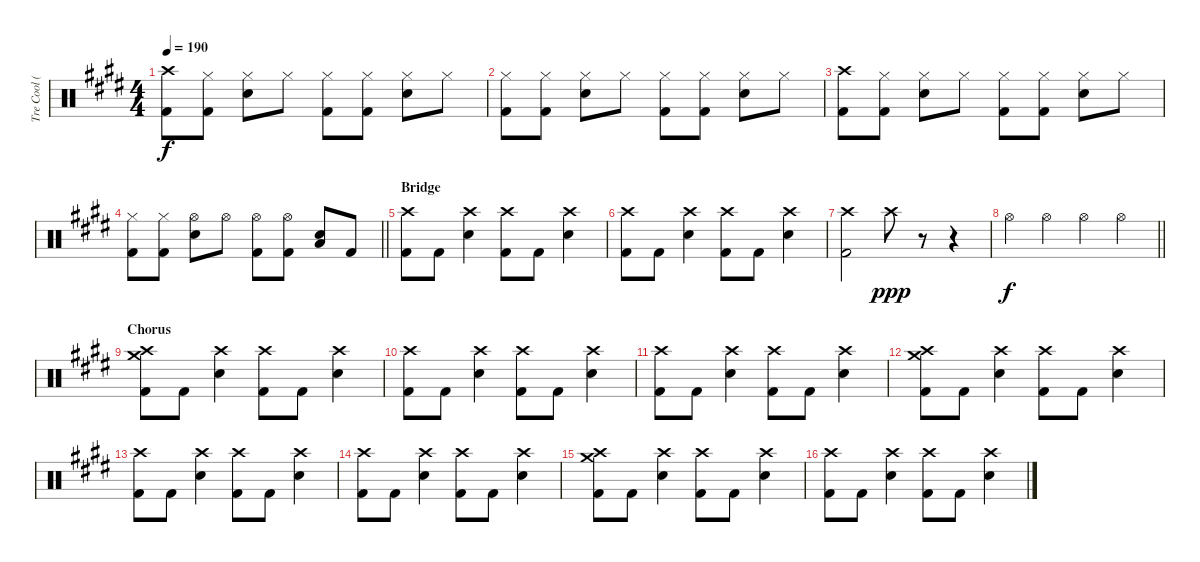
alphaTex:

\track ("Tre Cool (Drums)" "Tre Cool (") {instrument percussion}
\staff {score}
\articulation defaults
\ts (4 4)
\tempo 190
\clef neutral
\ks e
("Crash high (hit)" "Kick (hit) 2").8{dy f} ("Hi-Hat (closed)" "Kick (hit) 2").8 ("Hi-Hat (closed)" "Electric Snare (hit)").8 "Hi-Hat (closed)".8 ("Hi-Hat (closed)" "Kick (hit) 2").8 ("Hi-Hat (closed)" "Kick (hit) 2").8 ("Hi-Hat (closed)" "Electric Snare (hit)").8 "Hi-Hat (closed)".8 |
("Hi-Hat (closed)" "Kick (hit) 2").8 ("Hi-Hat (closed)" "Kick (hit) 2").8 ("Hi-Hat (closed)" "Electric Snare (hit)").8 "Hi-Hat (closed)".8 ("Hi-Hat (closed)" "Kick (hit) 2").8 ("Hi-Hat (closed)" "Kick (hit) 2").8 ("Hi-Hat (closed)" "Electric Snare (hit)").8 "Hi-Hat (closed)".8 |
("Crash high (hit)" "Kick (hit) 2").8 ("Hi-Hat (closed)" "Kick (hit) 2").8 ("Hi-Hat (closed)" "Electric Snare (hit)").8 "Hi-Hat (closed)".8 ("Hi-Hat (closed)" "Kick (hit) 2").8 ("Hi-Hat (closed)" "Kick (hit) 2").8 ("Hi-Hat (closed)" "Electric Snare (hit)").8 "Hi-Hat (closed)".8 |
\barLineRight lightlight
("Hi-Hat (closed)" "Kick (hit) 2").8 ("Hi-Hat (closed)" "Kick (hit) 2").8 ("Hi-Hat (open)" "Electric Snare (hit)").8 "Hi-Hat (open)".8 ("Hi-Hat (open)" "Kick (hit) 2").8 ("Hi-Hat (open)" "Kick (hit) 2").8 ("Low Tom (hit)" "Electric Snare (hit)").8 "Kick (hit) 2".8 |
\section ("" "Bridge")
("Kick (hit) 2" "Crash high (hit)").8 "Kick (hit) 2".8 ("Electric Snare (hit)" "Crash high (hit)").4 ("Kick (hit) 2" "Crash high (hit)").8 "Kick (hit) 2".8 ("Electric Snare (hit)" "Crash high (hit)").4 |
("Kick (hit) 2" "Crash high (hit)").8 "Kick (hit) 2".8 ("Electric Snare (hit)" "Crash high (hit)").4 ("Kick (hit) 2" "Crash high (hit)").8 "Kick (hit) 2".8 ("Electric Snare (hit)" "Crash high (hit)").4 |
("Kick (hit) 2" "Crash high (hit)").2 "Crash high (hit)".8{dy ppp} r.8 r.4 |
\barLineRight lightlight "Hi-Hat (open)".4{dy f} "Hi-Hat (open)".4 "Hi-Hat (open)".4 "Hi-Hat (open)".4
|
\section ("" "Chorus")
("Kick (hit) 2" "Crash medium (hit)" "Crash high (hit)").8 "Kick (hit) 2".8 ("Electric Snare (hit)" "Crash high (hit)").4 ("Kick (hit) 2" "Crash high (hit)").8 "Kick (hit) 2".8 ("Electric Snare (hit)" "Crash high (hit)").4 |
("Kick (hit) 2" "Crash high (hit)").8 "Kick (hit) 2".8 ("Electric Snare (hit)" "Crash high (hit)").4 ("Kick (hit) 2" "Crash high (hit)").8 "Kick (hit) 2".8 ("Electric Snare (hit)" "Crash high (hit)").4 |
("Kick (hit) 2" "Crash high (hit)").8 "Kick (hit) 2".8 ("Electric Snare (hit)" "Crash high (hit)").4 ("Kick (hit) 2" "Crash high (hit)").8 "Kick (hit) 2".8 ("Electric Snare (hit)" "Crash high (hit)").4 |
("Kick (hit) 2" "Crash medium (hit)" "Crash high (hit)").8 "Kick (hit) 2".8 ("Electric Snare (hit)" "Crash high (hit)").4 ("Kick (hit) 2" "Crash high (hit)").8 "Kick (hit) 2".8 ("Electric Snare (hit)" "Crash high (hit)").4 |
("Kick (hit) 2" "Crash high (hit)").8 "Kick (hit) 2".8 ("Electric Snare (hit)" "Crash high (hit)").4 ("Kick (hit) 2" "Crash high (hit)").8 "Kick (hit) 2".8 ("Electric Snare (hit)" "Crash high (hit)").4 |
("Kick (hit) 2" "Crash high (hit)").8 "Kick (hit) 2".8 ("Electric Snare (hit)" "Crash high (hit)").4 ("Kick (hit) 2" "Crash high (hit)").8 "Kick (hit) 2".8 ("Electric Snare (hit)" "Crash high (hit)").4 |
("Kick (hit) 2" "Crash medium (hit)" "Crash high (hit)").8 "Kick (hit) 2".8 ("Electric Snare (hit)" "Crash high (hit)").4 ("Kick (hit) 2" "Crash high (hit)").8 "Kick (hit) 2".8 ("Electric Snare (hit)" "Crash high (hit)").4 |
("Kick (hit) 2" "Crash high (hit)").8 "Kick (hit) 2".8 ("Electric Snare (hit)" "Crash high (hit)").4 ("Kick (hit) 2" "Crash high (hit)").8 "Kick (hit) 2".8 ("Electric Snare (hit)" "Crash high (hit)").4
